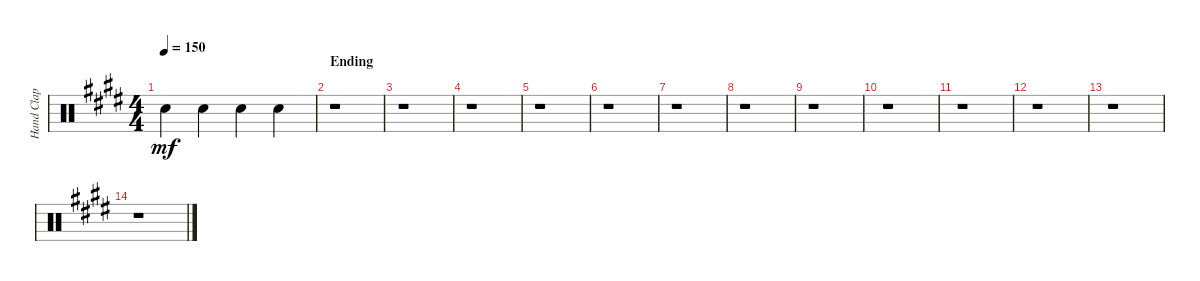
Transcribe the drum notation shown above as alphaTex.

\track ("Hand Clap" "Hand Clap") {instrument percussion}
\staff {score}
\articulation defaults
\ts (4 4)
\tempo 150
\clef neutral
\ks e "Hand Clap (hit)".4{dy mf} "Hand Clap (hit)".4 "Hand Clap (hit)".4 "Hand Clap (hit)".4
|
\section ("" "Ending")
r.1 |
r.1 |
r.1 |
r.1 |
r.1 |
r.1 |
r.1 |
r.1 |
r.1 |
r.1 |
r.1 |
r.1 |
r.1
